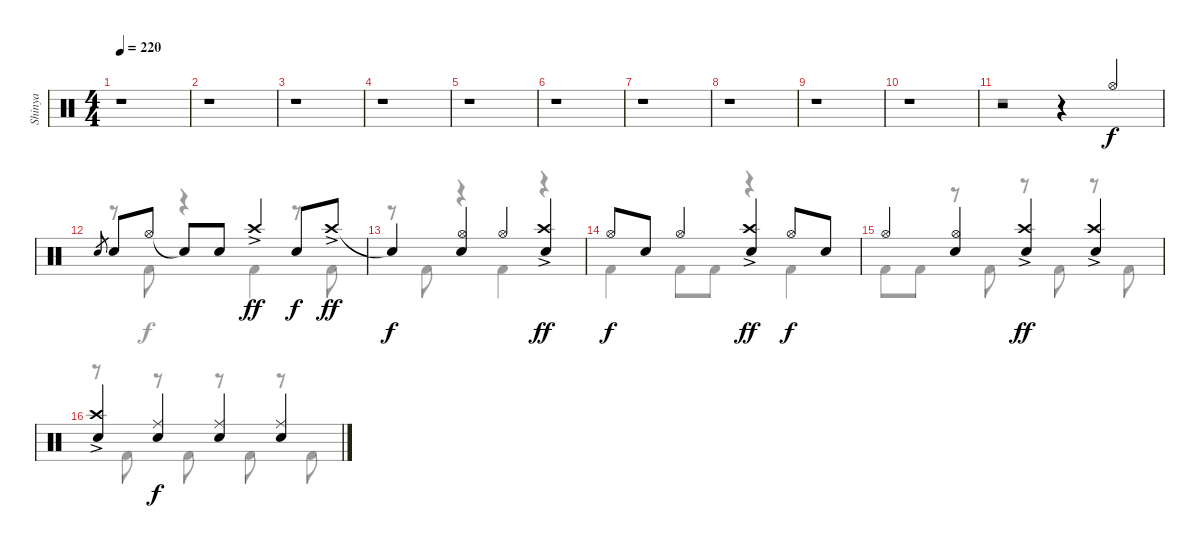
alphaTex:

\track ("Shinya" "Shinya") {instrument percussion}
\staff {score}
\articulation defaults
\voice
\ts (4 4)
\tempo 220
\clef neutral
\ks c
r.1{dy f} |
r.1 |
r.1 |
r.1 |
r.1 |
r.1 |
r.1 |
r.1 |
r.1 |
r.1 |
r.2 r.4 "Hi-Hat (open)".4 |
"Snare (hit) 2"{h}.8{gr} "Snare (hit) 2".8 "Hi-Hat (open)".8 "Snare (hit)"{t}.8 "Snare (hit) 2".8 "Crash high (hit)"{ac}.4{dy ff} "Snare (hit) 2".8{dy f} "Crash high (hit)"{ac}.8{dy ff} |
"Snare (hit)"{t}.4{dy f} ("Hi-Hat (open)" "Snare (hit) 2").4 "Hi-Hat (open)".4 ("Crash high (hit)"{ac} "Snare (hit) 2").4{dy ff} |
"Hi-Hat (open)".8{dy f} "Snare (hit) 2".8 "Hi-Hat (open)".4 ("Crash high (hit)"{ac} "Snare (hit) 2").4{dy ff} "Hi-Hat (open)".8{dy f} "Snare (hit) 2".8 |
"Hi-Hat (open)".4 ("Hi-Hat (open)" "Snare (hit) 2").4 ("Crash high (hit)"{ac} "Snare (hit) 2").4{dy ff} ("Crash high (hit)"{ac} "Snare (hit) 2").4 |
("Crash high (hit)"{ac} "Snare (hit) 2").4 ("Ride (middle)" "Snare (hit) 2").4{dy f} ("Ride (middle)" "Snare (hit) 2").4 ("Ride (middle)" "Snare (hit) 2").4
\voice
\clef neutral
\ottava regular
\simile none
\ks c
|
|
|
|
|
|
|
|
|
|
r.1 |
r.8 "Kick (hit) 2".8 r.4 "Kick (hit) 2".4 r.8 "Kick (hit) 2".8 |
r.8 "Kick (hit) 2".8 r.4 "Kick (hit) 2".4 r.4 |
"Kick (hit) 2".4 "Kick (hit) 2".8 "Kick (hit) 2".8 r.4 "Kick (hit) 2".4 |
"Kick (hit) 2".8 "Kick (hit) 2".8 r.8 "Kick (hit) 2".8 r.8 "Kick (hit) 2".8 r.8 "Kick (hit) 2".8 |
r.8 "Kick (hit) 2".8 r.8 "Kick (hit) 2".8 r.8 "Kick (hit) 2".8 r.8 "Kick (hit) 2".8
